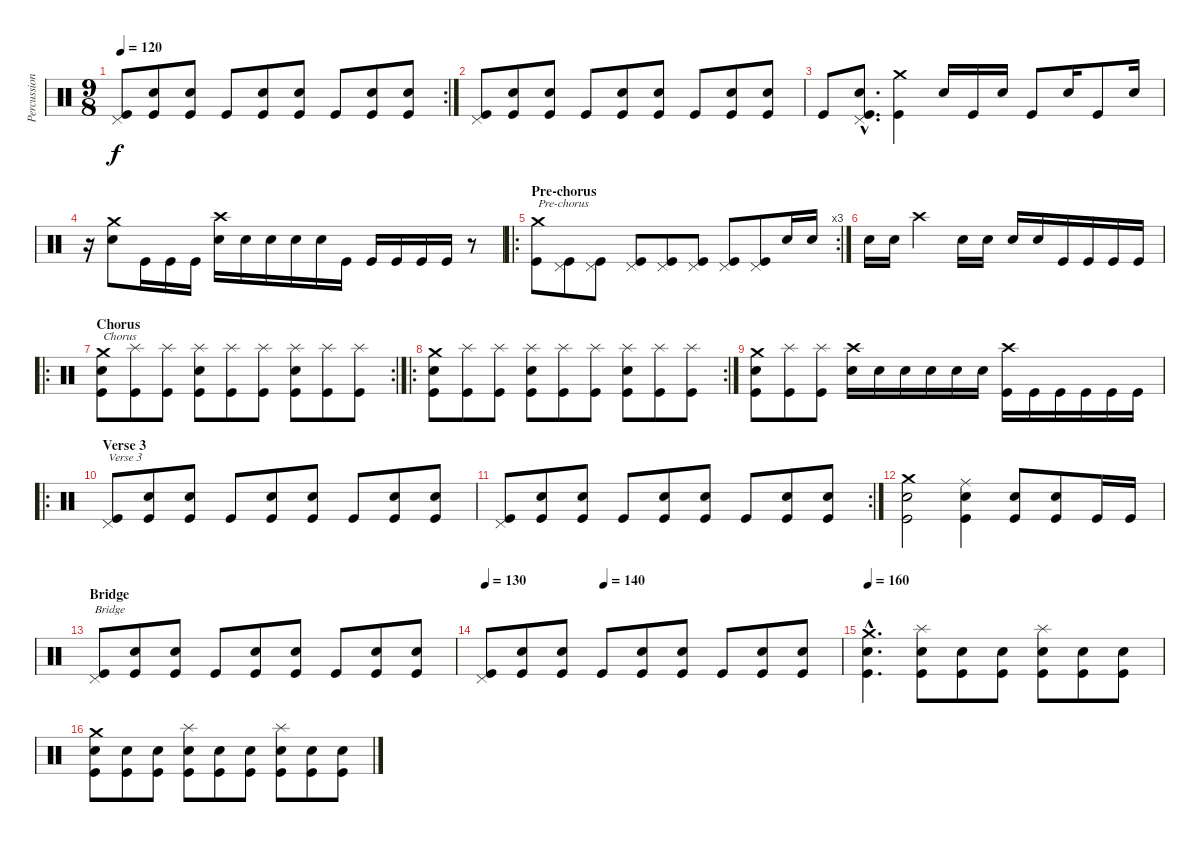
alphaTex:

\track ("Percussion" "Percussion") {instrument percussion}
\staff {score}
\articulation defaults
\rc 2
\ts (9 8)
\tempo 120
\clef neutral
\ks c
("Pedal Hi-Hat (hit)" "Kick (hit)").8{dy f} ("Snare (hit) 2" "Kick (hit)").8 ("Snare (hit) 2" "Kick (hit)").8 "Kick (hit)".8 ("Snare (hit) 2" "Kick (hit)").8 ("Snare (hit) 2" "Kick (hit)").8 "Kick (hit)".8 ("Snare (hit) 2" "Kick (hit)").8 ("Snare (hit) 2" "Kick (hit)").8 |
("Pedal Hi-Hat (hit)" "Kick (hit)").8 ("Snare (hit) 2" "Kick (hit)").8 ("Snare (hit) 2" "Kick (hit)").8 "Kick (hit)".8 ("Snare (hit) 2" "Kick (hit)").8 ("Snare (hit) 2" "Kick (hit)").8 "Kick (hit)".8 ("Snare (hit) 2" "Kick (hit)").8 ("Snare (hit) 2" "Kick (hit)").8 |
"Kick (hit)".8 ("Pedal Hi-Hat (hit)"{hac} "Snare (hit) 2"{hac} "Kick (hit)"{hac}).8{d} ("Crash medium (hit)" "Kick (hit)").4 "Snare (hit) 2".16 "Kick (hit)".16 "Snare (hit) 2".16 "Kick (hit)".8 "Snare (hit) 2".16 "Kick (hit)".8 "Snare (hit) 2".16 |
r.16 ("Crash medium (hit)" "Snare (hit) 2").8 "Kick (hit)".16 "Kick (hit)".16 "Kick (hit)".16 ("Crash high (hit)" "Snare (hit) 2").16 "Snare (hit) 2".16 "Snare (hit) 2".16 "Snare (hit) 2".16 "Snare (hit) 2".16 "Kick (hit)".16 "Kick (hit)".16 "Kick (hit)".16 "Kick (hit)".16 "Kick (hit)".16 r.8 |
\ro
\rc 3
\section ("" "Pre-chorus")
("Crash medium (hit)" "Kick (hit)").8{txt "Pre-chorus"} ("Pedal Hi-Hat (hit)" "Kick (hit)").8 ("Pedal Hi-Hat (hit)" "Kick (hit)").8 ("Pedal Hi-Hat (hit)" "Kick (hit)").8 ("Pedal Hi-Hat (hit)" "Kick (hit)").8 ("Pedal Hi-Hat (hit)" "Kick (hit)").8 ("Pedal Hi-Hat (hit)" "Kick (hit)").8 ("Pedal Hi-Hat (hit)" "Kick (hit)").8 "Snare (hit) 2".16 "Snare (hit) 2".16 |
"Snare (hit) 2".16 "Snare (hit) 2".16 "Crash high (hit)".2 "Snare (hit) 2".16 "Snare (hit) 2".16 "Snare (hit) 2".16 "Snare (hit) 2".16 "Kick (hit)".16 "Kick (hit)".16 "Kick (hit)".16 "Kick (hit)".16 |
\ro
\rc 2
\section ("" "Chorus")
("Crash medium (hit)" "Snare (hit) 2" "Kick (hit)").8{txt "Chorus"} ("Splash (hit)" "Kick (hit)").8 ("Splash (hit)" "Kick (hit)").8 ("Splash (hit)" "Snare (hit) 2" "Kick (hit)").8 ("Splash (hit)" "Kick (hit)").8 ("Splash (hit)" "Kick (hit)").8 ("Splash (hit)" "Snare (hit) 2" "Kick (hit)").8 ("Splash (hit)" "Kick (hit)").8 ("Splash (hit)" "Kick (hit)").8 |
\ro
\rc 2
("Crash medium (hit)" "Snare (hit) 2" "Kick (hit)").8 ("Splash (hit)" "Kick (hit)").8 ("Splash (hit)" "Kick (hit)").8 ("Splash (hit)" "Snare (hit) 2" "Kick (hit)").8 ("Splash (hit)" "Kick (hit)").8 ("Splash (hit)" "Kick (hit)").8 ("Splash (hit)" "Snare (hit) 2" "Kick (hit)").8 ("Splash (hit)" "Kick (hit)").8 ("Splash (hit)" "Kick (hit)").8 |
("Crash medium (hit)" "Snare (hit) 2" "Kick (hit)").8 ("Splash (hit)" "Kick (hit)").8 ("Splash (hit)" "Kick (hit)").8 ("Crash high (hit)" "Snare (hit) 2").16 "Snare (hit) 2".16 "Snare (hit) 2".16 "Snare (hit) 2".16 "Snare (hit) 2".16 "Snare (hit) 2".16 ("Crash high (hit)" "Kick (hit)").16 "Kick (hit)".16 "Kick (hit)".16 "Kick (hit)".16 "Kick (hit)".16 "Kick (hit)".16 |
\ro
\section ("" "Verse 3")
("Pedal Hi-Hat (hit)" "Kick (hit)").8{txt "Verse 3"} ("Snare (hit) 2" "Kick (hit)").8 ("Snare (hit) 2" "Kick (hit)").8 "Kick (hit)".8 ("Snare (hit) 2" "Kick (hit)").8 ("Snare (hit) 2" "Kick (hit)").8 "Kick (hit)".8 ("Snare (hit) 2" "Kick (hit)").8 ("Snare (hit) 2" "Kick (hit)").8 |
\rc 2
("Pedal Hi-Hat (hit)" "Kick (hit)").8 ("Snare (hit) 2" "Kick (hit)").8 ("Snare (hit) 2" "Kick (hit)").8 "Kick (hit)".8 ("Snare (hit) 2" "Kick (hit)").8 ("Snare (hit) 2" "Kick (hit)").8 "Kick (hit)".8 ("Snare (hit) 2" "Kick (hit)").8 ("Snare (hit) 2" "Kick (hit)").8 |
("Crash medium (hit)" "Snare (hit) 2" "Kick (hit)").2 ("Ride (middle)" "Snare (hit) 2" "Kick (hit)").4 ("Snare (hit) 2" "Kick (hit)").8 ("Snare (hit) 2" "Kick (hit)").8 "Kick (hit)".16 "Kick (hit)".16 |
\section ("" "Bridge")
("Pedal Hi-Hat (hit)" "Kick (hit)").8{txt "Bridge"} ("Snare (hit) 2" "Kick (hit)").8 ("Snare (hit) 2" "Kick (hit)").8 "Kick (hit)".8 ("Snare (hit) 2" "Kick (hit)").8 ("Snare (hit) 2" "Kick (hit)").8 "Kick (hit)".8 ("Snare (hit) 2" "Kick (hit)").8 ("Snare (hit) 2" "Kick (hit)").8 |
\tempo 130
\tempo (140 0.3333333333333333)
("Pedal Hi-Hat (hit)" "Kick (hit)").8 ("Snare (hit) 2" "Kick (hit)").8 ("Snare (hit) 2" "Kick (hit)").8 "Kick (hit)".8 ("Snare (hit) 2" "Kick (hit)").8 ("Snare (hit) 2" "Kick (hit)").8 "Kick (hit)".8 ("Snare (hit) 2" "Kick (hit)").8 ("Snare (hit) 2" "Kick (hit)").8 |
\tempo 160
("Crash medium (hit)"{hac} "Snare (hit) 2"{hac} "Kick (hit)"{hac}).4{d} ("Splash (hit)" "Snare (hit) 2" "Kick (hit)").8 ("Snare (hit) 2" "Kick (hit)").8 ("Snare (hit) 2" "Kick (hit)").8 ("Splash (hit)" "Snare (hit) 2" "Kick (hit)").8 ("Snare (hit) 2" "Kick (hit)").8 ("Snare (hit) 2" "Kick (hit)").8 |
("Crash medium (hit)" "Snare (hit) 2" "Kick (hit)").8 ("Snare (hit) 2" "Kick (hit)").8 ("Snare (hit) 2" "Kick (hit)").8 ("Splash (hit)" "Snare (hit) 2" "Kick (hit)").8 ("Snare (hit) 2" "Kick (hit)").8 ("Snare (hit) 2" "Kick (hit)").8 ("Splash (hit)" "Snare (hit) 2" "Kick (hit)").8 ("Snare (hit) 2" "Kick (hit)").8 ("Snare (hit) 2" "Kick (hit)").8
